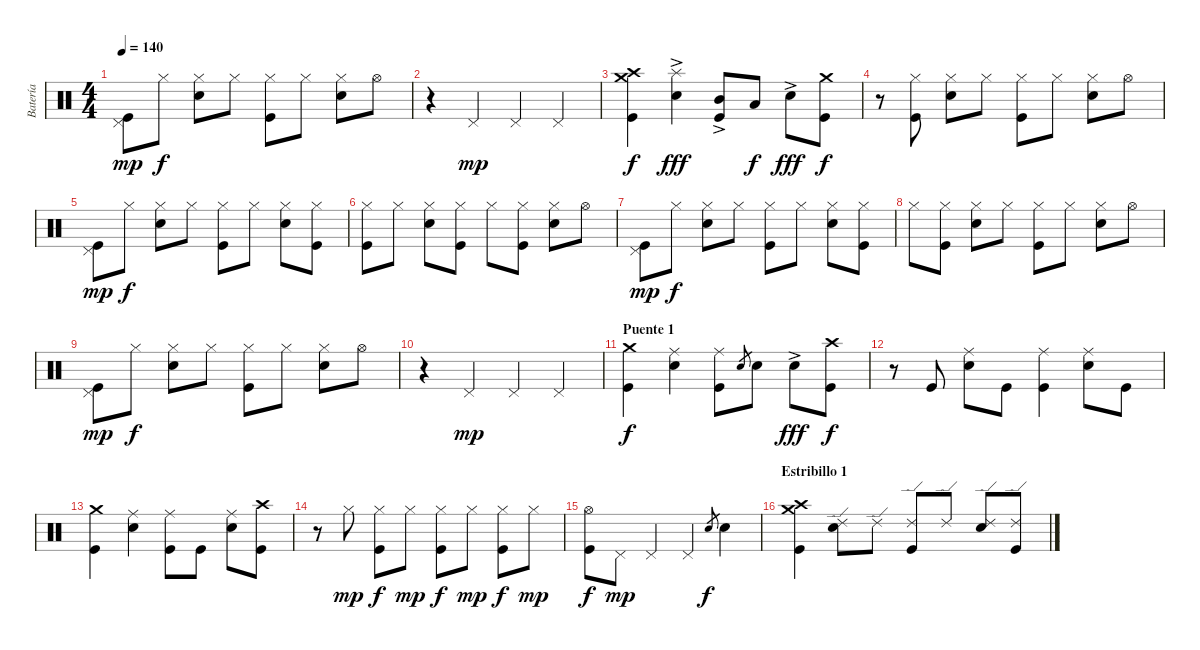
\track ("Batería" "Batería") {instrument percussion}
\staff {score}
\articulation defaults
\ts (4 4)
\tempo 140
\clef neutral
\ks c
("Kick (hit)" "Pedal Hi-Hat (hit)").8{dy mp} "Hi-Hat (closed)".8{dy f} ("Electric Snare (hit)" "Hi-Hat (closed)").8 "Hi-Hat (closed)".8 ("Kick (hit)" "Hi-Hat (closed)").8 "Hi-Hat (closed)".8 ("Electric Snare (hit)" "Hi-Hat (closed)").8 "Hi-Hat (open)".8 |
r.4 "Pedal Hi-Hat (hit)".4{dy mp} "Pedal Hi-Hat (hit)".4 "Pedal Hi-Hat (hit)".4 |
("Kick (hit)" "Crash medium (hit)" "Crash high (hit)").4{dy f} ("Electric Snare (hit)" "Splash (hit)"{ac}).4{dy fff} ("Kick (hit)" "Mid Tom (hit)"{ac}).8 "Low Tom (hit)".8{dy f} "Electric Snare (hit)"{ac}.8{dy fff} ("Kick (hit)" "Crash medium (hit)").8{dy f} |
r.8 ("Kick (hit)" "Hi-Hat (closed)").8 ("Electric Snare (hit)" "Hi-Hat (closed)").8 "Hi-Hat (closed)".8 ("Kick (hit)" "Hi-Hat (closed)").8 "Hi-Hat (closed)".8 ("Electric Snare (hit)" "Hi-Hat (closed)").8 "Hi-Hat (open)".8 |
("Kick (hit)" "Pedal Hi-Hat (hit)").8{dy mp} "Hi-Hat (closed)".8{dy f} ("Electric Snare (hit)" "Hi-Hat (closed)").8 "Hi-Hat (closed)".8 ("Kick (hit)" "Hi-Hat (closed)").8 "Hi-Hat (closed)".8 ("Electric Snare (hit)" "Hi-Hat (closed)").8 ("Kick (hit)" "Hi-Hat (closed)").8 |
("Kick (hit)" "Hi-Hat (closed)").8 "Hi-Hat (closed)".8 ("Electric Snare (hit)" "Hi-Hat (closed)").8 ("Kick (hit)" "Hi-Hat (closed)").8 "Hi-Hat (closed)".8 ("Kick (hit)" "Hi-Hat (closed)").8 ("Electric Snare (hit)" "Hi-Hat (closed)").8 "Hi-Hat (open)".8 |
("Kick (hit)" "Pedal Hi-Hat (hit)").8{dy mp} "Hi-Hat (closed)".8{dy f} ("Electric Snare (hit)" "Hi-Hat (closed)").8 "Hi-Hat (closed)".8 ("Kick (hit)" "Hi-Hat (closed)").8 "Hi-Hat (closed)".8 ("Electric Snare (hit)" "Hi-Hat (closed)").8 ("Kick (hit)" "Hi-Hat (closed)").8 |
"Hi-Hat (closed)".8 ("Kick (hit)" "Hi-Hat (closed)").8 ("Electric Snare (hit)" "Hi-Hat (closed)").8 "Hi-Hat (closed)".8 ("Kick (hit)" "Hi-Hat (closed)").8 "Hi-Hat (closed)".8 ("Electric Snare (hit)" "Hi-Hat (closed)").8 "Hi-Hat (open)".8 |
("Kick (hit)" "Pedal Hi-Hat (hit)").8{dy mp} "Hi-Hat (closed)".8{dy f} ("Electric Snare (hit)" "Hi-Hat (closed)").8 "Hi-Hat (closed)".8 ("Kick (hit)" "Hi-Hat (closed)").8 "Hi-Hat (closed)".8 ("Electric Snare (hit)" "Hi-Hat (closed)").8 "Hi-Hat (open)".8 |
r.4 "Pedal Hi-Hat (hit)".4{dy mp} "Pedal Hi-Hat (hit)".4 "Pedal Hi-Hat (hit)".4 |
\section ("" "Puente 1")
("Kick (hit)" "Crash medium (hit)").4{dy f} ("Electric Snare (hit)" "Ride (middle)").4 ("Kick (hit)" "Ride (middle)").8 "Electric Snare (hit)".8{gr} "Electric Snare (hit)".8 "Electric Snare (hit)"{ac}.8{dy fff} ("Kick (hit)" "Crash high (hit)").8{dy f} |
r.8 "Kick (hit)".8 ("Electric Snare (hit)" "Ride (middle)").8 "Kick (hit)".8 ("Kick (hit)" "Ride (middle)").4 ("Electric Snare (hit)" "Ride (middle)").8 "Kick (hit)".8 |
("Kick (hit)" "Crash medium (hit)").4 ("Electric Snare (hit)" "Ride (middle)").4 ("Kick (hit)" "Ride (middle)").8 "Kick (hit)".8 ("Electric Snare (hit)" "Ride (middle)").8 ("Kick (hit)" "Crash high (hit)").8 |
r.8 "Hi-Hat (closed)".8{dy mp} ("Kick (hit)" "Hi-Hat (closed)").8{dy f} "Hi-Hat (closed)".8{dy mp} ("Kick (hit)" "Hi-Hat (closed)").8{dy f} "Hi-Hat (closed)".8{dy mp} ("Kick (hit)" "Hi-Hat (closed)").8{dy f} "Hi-Hat (closed)".8{dy mp} |
("Kick (hit)" "Hi-Hat (open)").8{dy f} "Pedal Hi-Hat (hit)".8{dy mp} "Pedal Hi-Hat (hit)".4 "Pedal Hi-Hat (hit)".4 "Electric Snare (hit)".8{gr dy f} "Electric Snare (hit)".4 |
\section ("" "Estribillo 1")
("Kick (hit)" "Crash medium (hit)" "Crash high (hit)").4 ("Electric Snare (hit)" "Ride (edge) 2").8 "Ride (edge) 2".8 ("Kick (hit)" "Ride (edge) 2").8 "Ride (edge) 2".8 ("Electric Snare (hit)" "Ride (edge) 2").8 ("Kick (hit)" "Ride (edge) 2").8
